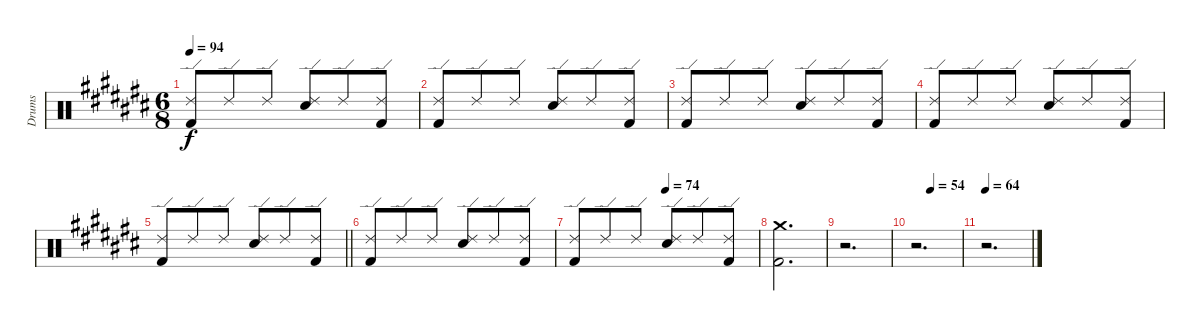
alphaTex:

\track ("Drums" "Drums") {instrument percussion}
\staff {score}
\articulation defaults
\ts (6 8)
\tempo 94
\clef neutral
\ks c#
("Ride (edge) 2" "Kick (hit) 2").8{dy f} "Ride (edge) 2".8 "Ride (edge) 2".8 ("Ride (edge) 2" "Snare (hit) 2").8 "Ride (edge) 2".8 ("Ride (edge) 2" "Kick (hit) 2").8 |
("Ride (edge) 2" "Kick (hit) 2").8 "Ride (edge) 2".8 "Ride (edge) 2".8 ("Ride (edge) 2" "Snare (hit) 2").8 "Ride (edge) 2".8 ("Ride (edge) 2" "Kick (hit) 2").8 |
("Ride (edge) 2" "Kick (hit) 2").8 "Ride (edge) 2".8 "Ride (edge) 2".8 ("Ride (edge) 2" "Snare (hit) 2").8 "Ride (edge) 2".8 ("Ride (edge) 2" "Kick (hit) 2").8 |
("Ride (edge) 2" "Kick (hit) 2").8 "Ride (edge) 2".8 "Ride (edge) 2".8 ("Ride (edge) 2" "Snare (hit) 2").8 "Ride (edge) 2".8 ("Ride (edge) 2" "Kick (hit) 2").8 |
\barLineRight lightlight
("Ride (edge) 2" "Kick (hit) 2").8 "Ride (edge) 2".8 "Ride (edge) 2".8 ("Ride (edge) 2" "Snare (hit) 2").8 "Ride (edge) 2".8 ("Ride (edge) 2" "Kick (hit) 2").8 |
("Ride (edge) 2" "Kick (hit) 2").8 "Ride (edge) 2".8 "Ride (edge) 2".8 ("Ride (edge) 2" "Snare (hit) 2").8 "Ride (edge) 2".8 ("Ride (edge) 2" "Kick (hit) 2").8 |
\tempo (74 0.5)
("Ride (edge) 2" "Kick (hit) 2").8 "Ride (edge) 2".8 "Ride (edge) 2".8 ("Ride (edge) 2" "Snare (hit) 2").8 "Ride (edge) 2".8 ("Ride (edge) 2" "Kick (hit) 2").8 |
("Crash medium (hit)" "Kick (hit) 2").2{d} |
r.2{d} |
\tempo (54 0.3333333333333333)
r.2{d} |
\tempo 64
r.2{d}
